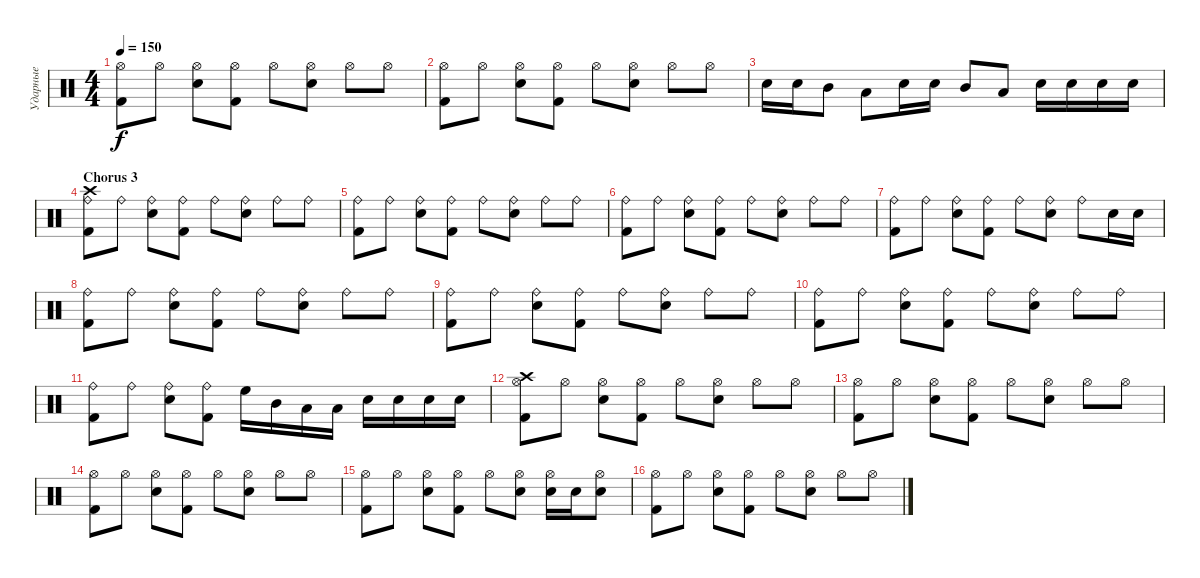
\track ("Ударные" "Ударные") {instrument percussion}
\staff {score}
\articulation defaults
\ts (4 4)
\tempo 150
\clef neutral
\ks c
("Hi-Hat (open)" "Kick (hit) 2").8{dy f} "Hi-Hat (open)".8 ("Hi-Hat (open)" "Snare (hit) 2").8 ("Hi-Hat (open)" "Kick (hit) 2").8 "Hi-Hat (open)".8 ("Hi-Hat (open)" "Snare (hit) 2").8 "Hi-Hat (open)".8 "Hi-Hat (open)".8 |
("Hi-Hat (open)" "Kick (hit) 2").8 "Hi-Hat (open)".8 ("Hi-Hat (open)" "Snare (hit) 2").8 ("Hi-Hat (open)" "Kick (hit) 2").8 "Hi-Hat (open)".8 ("Hi-Hat (open)" "Snare (hit) 2").8 "Hi-Hat (open)".8 "Hi-Hat (open)".8 |
"Snare (hit) 2".16 "Snare (hit) 2".16 "Mid Tom (hit)".8 "Low Tom (hit)".8 "Snare (hit) 2".16 "Snare (hit) 2".16 "Mid Tom (hit)".8 "Low Tom (hit)".8 "Snare (hit) 2".16 "Snare (hit) 2".16 "Snare (hit) 2".16 "Snare (hit) 2".16 |
\section ("" "Chorus 3")
("Ride (bell)" "Crash high (hit)" "Kick (hit) 2").8 "Ride (bell)".8 ("Ride (bell)" "Snare (hit) 2").8 ("Ride (bell)" "Kick (hit) 2").8 "Ride (bell)".8 ("Ride (bell)" "Snare (hit) 2").8 "Ride (bell)".8 "Ride (bell)".8 |
("Ride (bell)" "Kick (hit) 2").8 "Ride (bell)".8 ("Ride (bell)" "Snare (hit) 2").8 ("Ride (bell)" "Kick (hit) 2").8 "Ride (bell)".8 ("Ride (bell)" "Snare (hit) 2").8 "Ride (bell)".8 "Ride (bell)".8 |
("Ride (bell)" "Kick (hit) 2").8 "Ride (bell)".8 ("Ride (bell)" "Snare (hit) 2").8 ("Ride (bell)" "Kick (hit) 2").8 "Ride (bell)".8 ("Ride (bell)" "Snare (hit) 2").8 "Ride (bell)".8 "Ride (bell)".8 |
("Ride (bell)" "Kick (hit) 2").8 "Ride (bell)".8 ("Ride (bell)" "Snare (hit) 2").8 ("Ride (bell)" "Kick (hit) 2").8 "Ride (bell)".8 ("Ride (bell)" "Snare (hit) 2").8 "Ride (bell)".8 "Snare (hit) 2".16 "Snare (hit) 2".16 |
("Ride (bell)" "Kick (hit) 2").8 "Ride (bell)".8 ("Ride (bell)" "Snare (hit) 2").8 ("Ride (bell)" "Kick (hit) 2").8 "Ride (bell)".8 ("Ride (bell)" "Snare (hit) 2").8 "Ride (bell)".8 "Ride (bell)".8 |
("Ride (bell)" "Kick (hit) 2").8 "Ride (bell)".8 ("Ride (bell)" "Snare (hit) 2").8 ("Ride (bell)" "Kick (hit) 2").8 "Ride (bell)".8 ("Ride (bell)" "Snare (hit) 2").8 "Ride (bell)".8 "Ride (bell)".8 |
("Ride (bell)" "Kick (hit) 2").8 "Ride (bell)".8 ("Ride (bell)" "Snare (hit) 2").8 ("Ride (bell)" "Kick (hit) 2").8 "Ride (bell)".8 ("Ride (bell)" "Snare (hit) 2").8 "Ride (bell)".8 "Ride (bell)".8 |
("Ride (bell)" "Kick (hit) 2").8 "Ride (bell)".8 ("Ride (bell)" "Snare (hit) 2").8 ("Ride (bell)" "Kick (hit) 2").8 "High Floor Tom (hit)".16 "Mid Tom (hit)".16 "Low Tom (hit)".16 "Low Floor Tom (hit)".16 "Snare (hit) 2".16 "Snare (hit) 2".16 "Snare (hit) 2".16 "Snare (hit) 2".16 |
("Hi-Hat (open)" "Crash high (hit)" "Kick (hit) 2").8 "Hi-Hat (open)".8 ("Hi-Hat (open)" "Snare (hit) 2").8 ("Hi-Hat (open)" "Kick (hit) 2").8 "Hi-Hat (open)".8 ("Hi-Hat (open)" "Snare (hit) 2").8 "Hi-Hat (open)".8 "Hi-Hat (open)".8 |
("Hi-Hat (open)" "Kick (hit) 2").8 "Hi-Hat (open)".8 ("Hi-Hat (open)" "Snare (hit) 2").8 ("Hi-Hat (open)" "Kick (hit) 2").8 "Hi-Hat (open)".8 ("Hi-Hat (open)" "Snare (hit) 2").8 "Hi-Hat (open)".8 "Hi-Hat (open)".8 |
("Hi-Hat (open)" "Kick (hit) 2").8 "Hi-Hat (open)".8 ("Hi-Hat (open)" "Snare (hit) 2").8 ("Hi-Hat (open)" "Kick (hit) 2").8 "Hi-Hat (open)".8 ("Hi-Hat (open)" "Snare (hit) 2").8 "Hi-Hat (open)".8 "Hi-Hat (open)".8 |
("Hi-Hat (open)" "Kick (hit) 2").8 "Hi-Hat (open)".8 ("Hi-Hat (open)" "Snare (hit) 2").8 ("Hi-Hat (open)" "Kick (hit) 2").8 "Hi-Hat (open)".8 ("Hi-Hat (open)" "Snare (hit) 2").8 ("Hi-Hat (open)" "Snare (hit) 2").16 "Snare (hit) 2".16 ("Hi-Hat (open)" "Snare (hit) 2").8 |
("Hi-Hat (open)" "Kick (hit) 2").8 "Hi-Hat (open)".8 ("Hi-Hat (open)" "Snare (hit) 2").8 ("Hi-Hat (open)" "Kick (hit) 2").8 "Hi-Hat (open)".8 ("Hi-Hat (open)" "Snare (hit) 2").8 "Hi-Hat (open)".8 "Hi-Hat (open)".8
